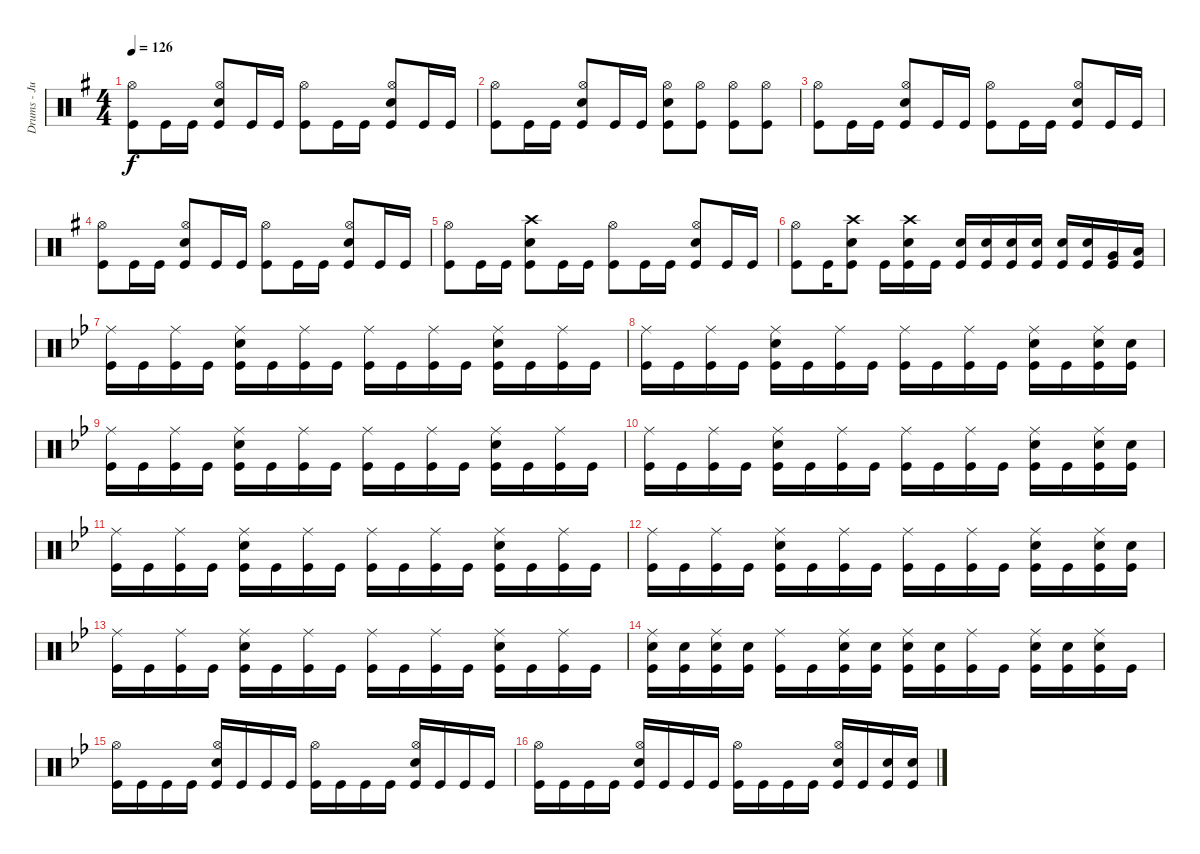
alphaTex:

\track ("Drums - Jukka" "Drums - Ju") {instrument percussion}
\staff {score}
\articulation defaults
\ts (4 4)
\tempo 126
\clef neutral
\ks eminor
("Kick (hit)" "Hi-Hat (open)").8{dy f} "Kick (hit)".16 "Kick (hit)".16 ("Hi-Hat (open)" "Kick (hit)" "Snare (hit) 2").8 "Kick (hit)".16 "Kick (hit)".16 ("Kick (hit)" "Hi-Hat (open)").8 "Kick (hit)".16 "Kick (hit)".16 ("Kick (hit)" "Snare (hit) 2" "Hi-Hat (open)").8 "Kick (hit)".16 "Kick (hit)".16 |
("Kick (hit)" "Hi-Hat (open)").8 "Kick (hit)".16 "Kick (hit)".16 ("Hi-Hat (open)" "Kick (hit)" "Snare (hit) 2").8 "Kick (hit)".16 "Kick (hit)".16 ("Kick (hit)" "Snare (hit) 2" "Hi-Hat (open)").8 ("Kick (hit)" "Hi-Hat (open)").8 ("Kick (hit)" "Hi-Hat (open)").8 ("Kick (hit)" "Hi-Hat (open)").8 |
("Kick (hit)" "Hi-Hat (open)").8 "Kick (hit)".16 "Kick (hit)".16 ("Hi-Hat (open)" "Kick (hit)" "Snare (hit) 2").8 "Kick (hit)".16 "Kick (hit)".16 ("Kick (hit)" "Hi-Hat (open)").8 "Kick (hit)".16 "Kick (hit)".16 ("Kick (hit)" "Snare (hit) 2" "Hi-Hat (open)").8 "Kick (hit)".16 "Kick (hit)".16 |
("Kick (hit)" "Hi-Hat (open)").8 "Kick (hit)".16 "Kick (hit)".16 ("Hi-Hat (open)" "Kick (hit)" "Snare (hit) 2").8 "Kick (hit)".16 "Kick (hit)".16 ("Kick (hit)" "Hi-Hat (open)").8 "Kick (hit)".16 "Kick (hit)".16 ("Kick (hit)" "Snare (hit) 2" "Hi-Hat (open)").8 "Kick (hit)".16 "Kick (hit)".16 |
("Kick (hit)" "Hi-Hat (open)").8 "Kick (hit)".16 "Kick (hit)".16 ("Crash high (hit)" "Kick (hit)" "Snare (hit) 2").8 "Kick (hit)".16 "Kick (hit)".16 ("Kick (hit)" "Hi-Hat (open)").8 "Kick (hit)".16 "Kick (hit)".16 ("Kick (hit)" "Snare (hit) 2" "Hi-Hat (open)").8 "Kick (hit)".16 "Kick (hit)".16 |
("Kick (hit)" "Hi-Hat (open)").8 "Kick (hit)".16 ("Kick (hit)" "Snare (hit) 2" "Crash high (hit)").8 "Kick (hit)".16 ("Kick (hit)" "Crash high (hit)" "Snare (hit) 2").16 "Kick (hit)".16 ("Kick (hit)" "Snare (hit) 2").16 ("Snare (hit) 2" "Kick (hit)").16 ("Kick (hit)" "Snare (hit) 2").16 ("Kick (hit)" "Snare (hit) 2").16 ("Kick (hit)" "Snare (hit) 2").16 ("Kick (hit)" "Snare (hit) 2").16 ("Kick (hit)" "Very Low Tom (hit)").16 ("Kick (hit)" "Low Floor Tom (hit)").16 |
\ks gminor
("Kick (hit)" "Ride (middle)").16 "Kick (hit)".16 ("Kick (hit)" "Ride (middle)").16 "Kick (hit)".16 ("Kick (hit)" "Snare (hit) 2" "Ride (middle)").16 "Kick (hit)".16 ("Kick (hit)" "Ride (middle)").16 "Kick (hit)".16 ("Kick (hit)" "Ride (middle)").16 "Kick (hit)".16 ("Kick (hit)" "Ride (middle)").16 "Kick (hit)".16 ("Kick (hit)" "Snare (hit) 2" "Ride (middle)").16 "Kick (hit)".16 ("Kick (hit)" "Ride (middle)").16 "Kick (hit)".16 |
("Kick (hit)" "Ride (middle)").16 "Kick (hit)".16 ("Kick (hit)" "Ride (middle)").16 "Kick (hit)".16 ("Kick (hit)" "Snare (hit) 2" "Ride (middle)").16 "Kick (hit)".16 ("Kick (hit)" "Ride (middle)").16 "Kick (hit)".16 ("Kick (hit)" "Ride (middle)").16 "Kick (hit)".16 ("Kick (hit)" "Ride (middle)").16 "Kick (hit)".16 ("Kick (hit)" "Snare (hit) 2" "Ride (middle)").16 "Kick (hit)".16 ("Kick (hit)" "Ride (middle)" "Snare (hit) 2").16 ("Kick (hit)" "Snare (hit) 2").16 |
("Kick (hit)" "Ride (middle)").16 "Kick (hit)".16 ("Kick (hit)" "Ride (middle)").16 "Kick (hit)".16 ("Kick (hit)" "Snare (hit) 2" "Ride (middle)").16 "Kick (hit)".16 ("Kick (hit)" "Ride (middle)").16 "Kick (hit)".16 ("Kick (hit)" "Ride (middle)").16 "Kick (hit)".16 ("Kick (hit)" "Ride (middle)").16 "Kick (hit)".16 ("Kick (hit)" "Snare (hit) 2" "Ride (middle)").16 "Kick (hit)".16 ("Kick (hit)" "Ride (middle)").16 "Kick (hit)".16 |
("Kick (hit)" "Ride (middle)").16 "Kick (hit)".16 ("Kick (hit)" "Ride (middle)").16 "Kick (hit)".16 ("Kick (hit)" "Snare (hit) 2" "Ride (middle)").16 "Kick (hit)".16 ("Kick (hit)" "Ride (middle)").16 "Kick (hit)".16 ("Kick (hit)" "Ride (middle)").16 "Kick (hit)".16 ("Kick (hit)" "Ride (middle)").16 "Kick (hit)".16 ("Kick (hit)" "Snare (hit) 2" "Ride (middle)").16 "Kick (hit)".16 ("Kick (hit)" "Ride (middle)" "Snare (hit) 2").16 ("Kick (hit)" "Snare (hit) 2").16 |
("Kick (hit)" "Ride (middle)").16 "Kick (hit)".16 ("Kick (hit)" "Ride (middle)").16 "Kick (hit)".16 ("Kick (hit)" "Snare (hit) 2" "Ride (middle)").16 "Kick (hit)".16 ("Kick (hit)" "Ride (middle)").16 "Kick (hit)".16 ("Kick (hit)" "Ride (middle)").16 "Kick (hit)".16 ("Kick (hit)" "Ride (middle)").16 "Kick (hit)".16 ("Kick (hit)" "Snare (hit) 2" "Ride (middle)").16 "Kick (hit)".16 ("Kick (hit)" "Ride (middle)").16 "Kick (hit)".16 |
("Kick (hit)" "Ride (middle)").16 "Kick (hit)".16 ("Kick (hit)" "Ride (middle)").16 "Kick (hit)".16 ("Kick (hit)" "Snare (hit) 2" "Ride (middle)").16 "Kick (hit)".16 ("Kick (hit)" "Ride (middle)").16 "Kick (hit)".16 ("Kick (hit)" "Ride (middle)").16 "Kick (hit)".16 ("Kick (hit)" "Ride (middle)").16 "Kick (hit)".16 ("Kick (hit)" "Snare (hit) 2" "Ride (middle)").16 "Kick (hit)".16 ("Kick (hit)" "Ride (middle)" "Snare (hit) 2").16 ("Kick (hit)" "Snare (hit) 2").16 |
("Kick (hit)" "Ride (middle)").16 "Kick (hit)".16 ("Kick (hit)" "Ride (middle)").16 "Kick (hit)".16 ("Kick (hit)" "Snare (hit) 2" "Ride (middle)").16 "Kick (hit)".16 ("Kick (hit)" "Ride (middle)").16 "Kick (hit)".16 ("Kick (hit)" "Ride (middle)").16 "Kick (hit)".16 ("Kick (hit)" "Ride (middle)").16 "Kick (hit)".16 ("Kick (hit)" "Snare (hit) 2" "Ride (middle)").16 "Kick (hit)".16 ("Kick (hit)" "Ride (middle)").16 "Kick (hit)".16 |
("Kick (hit)" "Ride (middle)" "Snare (hit) 2").16 ("Kick (hit)" "Snare (hit) 2").16 ("Kick (hit)" "Ride (middle)" "Snare (hit) 2").16 ("Kick (hit)" "Snare (hit) 2").16 ("Kick (hit)" "Ride (middle)").16 "Kick (hit)".16 ("Kick (hit)" "Ride (middle)" "Snare (hit) 2").16 ("Kick (hit)" "Snare (hit) 2").16 ("Kick (hit)" "Ride (middle)" "Snare (hit) 2").16 ("Kick (hit)" "Snare (hit) 2").16 ("Kick (hit)" "Ride (middle)").16 "Kick (hit)".16 ("Kick (hit)" "Snare (hit) 2" "Ride (middle)").16 ("Kick (hit)" "Snare (hit) 2").16 ("Kick (hit)" "Ride (middle)" "Snare (hit) 2").16 "Kick (hit)".16 |
("Kick (hit)" "Hi-Hat (open)").16 "Kick (hit)".16 "Kick (hit)".16 "Kick (hit)".16 ("Kick (hit)" "Snare (hit) 2" "Hi-Hat (open)").16 "Kick (hit)".16 "Kick (hit)".16 "Kick (hit)".16 ("Kick (hit)" "Hi-Hat (open)").16 "Kick (hit)".16 "Kick (hit)".16 "Kick (hit)".16 ("Kick (hit)" "Snare (hit) 2" "Hi-Hat (open)").16 "Kick (hit)".16 "Kick (hit)".16 "Kick (hit)".16 |
("Kick (hit)" "Hi-Hat (open)").16 "Kick (hit)".16 "Kick (hit)".16 "Kick (hit)".16 ("Kick (hit)" "Snare (hit) 2" "Hi-Hat (open)").16 "Kick (hit)".16 "Kick (hit)".16 "Kick (hit)".16 ("Kick (hit)" "Hi-Hat (open)").16 "Kick (hit)".16 "Kick (hit)".16 "Kick (hit)".16 ("Kick (hit)" "Snare (hit) 2" "Hi-Hat (open)").16 "Kick (hit)".16 ("Kick (hit)" "Snare (hit) 2").16 ("Kick (hit)" "Snare (hit) 2").16
